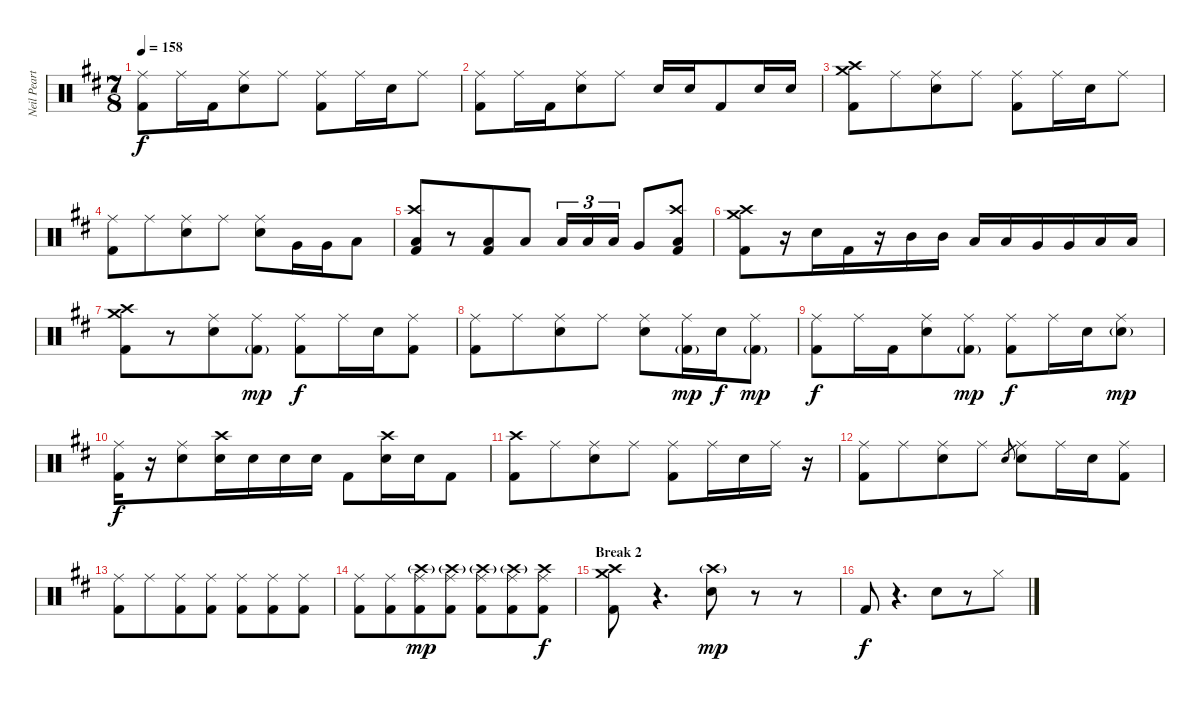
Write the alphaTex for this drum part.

\track ("Neil Peart (drums)" "Neil Peart") {instrument percussion}
\staff {score}
\articulation defaults
\ts (7 8)
\tempo 158
\clef neutral
\ks bminor
("Ride (middle)" "Kick (hit) 2").8{dy f} "Ride (middle)".16 "Kick (hit) 2".16 ("Ride (middle)" "Electric Snare (hit)").8 "Ride (middle)".8 ("Ride (middle)" "Kick (hit) 2").8 "Ride (middle)".16 "Electric Snare (hit)".16 "Ride (middle)".8 |
("Ride (middle)" "Kick (hit) 2").8 "Ride (middle)".16 "Kick (hit) 2".16 ("Ride (middle)" "Electric Snare (hit)").8 "Ride (middle)".8 "Electric Snare (hit)".16 "Electric Snare (hit)".16 "Kick (hit) 2".8 "Electric Snare (hit)".16 "Electric Snare (hit)".16 |
("Crash medium (hit)" "Crash high (hit)" "Kick (hit) 2").8 "Ride (middle)".8 ("Ride (middle)" "Electric Snare (hit)").8 "Ride (middle)".8 ("Ride (middle)" "Kick (hit) 2").8 "Ride (middle)".16 "Electric Snare (hit)".16 "Ride (middle)".8 |
("Ride (middle)" "Kick (hit) 2").8 "Ride (middle)".8 ("Ride (middle)" "Electric Snare (hit)").8 "Ride (middle)".8 ("Ride (middle)" "Electric Snare (hit)").8 "Very Low Tom (hit)".16 "Very Low Tom (hit)".16 "Low Floor Tom (hit)".8 |
("Crash high (hit)" "Low Floor Tom (hit)" "Kick (hit) 2").8 r.8 ("Low Floor Tom (hit)" "Kick (hit) 2").8 "Low Floor Tom (hit)".8 "Low Tom (hit)".16{tu (3 2)} "Low Tom (hit)".16{tu (3 2)} "Low Tom (hit)".16{tu (3 2)} "Very Low Tom (hit)".8 ("Crash high (hit)" "Low Floor Tom (hit)" "Kick (hit) 2").8 |
("Crash medium (hit)" "Crash high (hit)" "Kick (hit) 2").8 r.16 "Electric Snare (hit)".16 "Kick (hit) 2".16 r.16 "Mid Tom (hit)".16 "Mid Tom (hit)".16 "Low Tom (hit)".16 "Low Tom (hit)".16 "Very Low Tom (hit)".16 "Very Low Tom (hit)".16 "Low Floor Tom (hit)".16 "Low Floor Tom (hit)".16 |
("Crash medium (hit)" "Crash high (hit)" "Kick (hit) 2").8 r.8 ("Ride (middle)" "Electric Snare (hit)").8 ("Ride (middle)" "Kick (hit) 2"{g}).8{dy mp} ("Ride (middle)" "Kick (hit) 2").8{dy f} "Ride (middle)".16 "Electric Snare (hit)".16 ("Ride (middle)" "Kick (hit) 2").8 |
("Ride (middle)" "Kick (hit) 2").8 "Ride (middle)".8 ("Ride (middle)" "Electric Snare (hit)").8 "Ride (middle)".8 ("Ride (middle)" "Electric Snare (hit)").8 ("Ride (middle)" "Kick (hit) 2"{g}).16{dy mp} "Electric Snare (hit)".16{dy f} ("Ride (middle)" "Kick (hit) 2"{g}).8{dy mp} |
("Ride (middle)" "Kick (hit) 2").8{dy f} "Ride (middle)".16 "Kick (hit) 2".16 ("Ride (middle)" "Electric Snare (hit)").8 ("Ride (middle)" "Kick (hit) 2"{g}).8{dy mp} ("Ride (middle)" "Kick (hit) 2").8{dy f} "Ride (middle)".16 "Electric Snare (hit)".16 ("Ride (middle)" "Electric Snare (hit)"{g}).8{dy mp} |
("Ride (middle)" "Kick (hit) 2").16{dy f} r.16 ("Ride (middle)" "Electric Snare (hit)").8 ("Crash high (hit)" "Electric Snare (hit)").16 "Electric Snare (hit)".16 "Electric Snare (hit)".16 "Electric Snare (hit)".16 "Kick (hit) 2".8 ("Crash high (hit)" "Electric Snare (hit)").16 "Electric Snare (hit)".16 "Kick (hit) 2".8 |
("Crash high (hit)" "Kick (hit) 2").8 "Ride (middle)".8 ("Ride (middle)" "Electric Snare (hit)").8 "Ride (middle)".8 ("Ride (middle)" "Kick (hit) 2").8 "Ride (middle)".16 "Electric Snare (hit)".16 "Ride (middle)".16 r.16 |
("Ride (middle)" "Kick (hit) 2").8 "Ride (middle)".8 ("Ride (middle)" "Electric Snare (hit)").8 "Ride (middle)".8 "Electric Snare (hit)".8{gr} ("Ride (middle)" "Electric Snare (hit)").8 "Ride (middle)".16 "Electric Snare (hit)".16 ("Ride (middle)" "Kick (hit) 2").8 |
("Ride (middle)" "Kick (hit) 2").8 "Ride (middle)".8 ("Ride (middle)" "Kick (hit) 2").8 ("Ride (middle)" "Kick (hit) 2").8 ("Ride (middle)" "Kick (hit) 2").8 ("Ride (middle)" "Kick (hit) 2").8 ("Ride (middle)" "Kick (hit) 2").8 |
("Ride (middle)" "Kick (hit) 2").8 ("Ride (middle)" "Kick (hit) 2").8 ("Crash high (hit)"{g} "Ride (middle)" "Kick (hit) 2").8{dy mp} ("Crash high (hit)"{g} "Ride (middle)" "Kick (hit) 2").8 ("Crash high (hit)"{g} "Ride (middle)" "Kick (hit) 2").8 ("Crash high (hit)"{g} "Ride (middle)" "Kick (hit) 2").8 ("Crash high (hit)" "Ride (middle)" "Kick (hit) 2").8{dy f} |
\section ("" "Break 2")
("Crash medium (hit)" "Crash high (hit)" "Kick (hit) 2").8 r.4{d} ("Crash high (hit)"{g} "Electric Snare (hit)").8{dy mp} r.8 r.8 |
"Kick (hit) 2".8{dy f} r.4{d} "Electric Snare (hit)".8 r.8 "Hi-Hat (closed)".8
